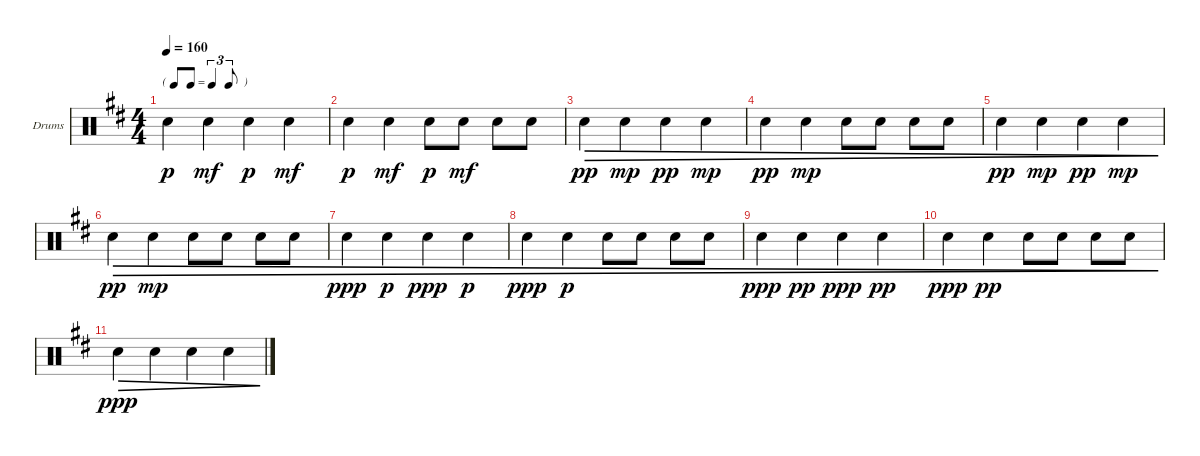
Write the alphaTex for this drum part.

\defaultSystemsLayout 4
\bracketExtendMode groupsimilarinstruments
\firstSystemTrackNameOrientation horizontal
\otherSystemsTrackNameOrientation horizontal
\track ("Hal Blaine" "Drums") {instrument percussion}
\staff {score}
\articulation defaults
\ts (4 4)
\tf triplet8th
\tempo 160
\clef neutral
\ks bminor "Snare (hit) 2".4{dy p} "Snare (hit) 2".4{dy mf} "Snare (hit) 2".4{dy p} "Snare (hit) 2".4{dy mf}
|
"Snare (hit) 2".4{dy p} "Snare (hit) 2".4{dy mf} "Snare (hit) 2".8{dy p} "Snare (hit) 2".8{dy mf} "Snare (hit) 2".8 "Snare (hit) 2".8 |
"Snare (hit) 2".4{dec dy pp} "Snare (hit) 2".4{dec dy mp} "Snare (hit) 2".4{dec dy pp} "Snare (hit) 2".4{dec dy mp} |
"Snare (hit) 2".4{dec dy pp} "Snare (hit) 2".4{dec dy mp} "Snare (hit) 2".8{dec} "Snare (hit) 2".8{dec} "Snare (hit) 2".8{dec} "Snare (hit) 2".8{dec} |
"Snare (hit) 2".4{dec dy pp} "Snare (hit) 2".4{dec dy mp} "Snare (hit) 2".4{dec dy pp} "Snare (hit) 2".4{dec dy mp} |
"Snare (hit) 2".4{dec dy pp} "Snare (hit) 2".4{dec dy mp} "Snare (hit) 2".8{dec} "Snare (hit) 2".8{dec} "Snare (hit) 2".8{dec} "Snare (hit) 2".8{dec} |
"Snare (hit) 2".4{dec dy ppp} "Snare (hit) 2".4{dec dy p} "Snare (hit) 2".4{dec dy ppp} "Snare (hit) 2".4{dec dy p} |
"Snare (hit) 2".4{dec dy ppp} "Snare (hit) 2".4{dec dy p} "Snare (hit) 2".8{dec} "Snare (hit) 2".8{dec} "Snare (hit) 2".8{dec} "Snare (hit) 2".8{dec} |
"Snare (hit) 2".4{dec dy ppp} "Snare (hit) 2".4{dec dy pp} "Snare (hit) 2".4{dec dy ppp} "Snare (hit) 2".4{dec dy pp} |
"Snare (hit) 2".4{dec dy ppp} "Snare (hit) 2".4{dec dy pp} "Snare (hit) 2".8{dec} "Snare (hit) 2".8{dec} "Snare (hit) 2".8{dec} "Snare (hit) 2".8{dec} |
"Snare (hit) 2".4{dec dy ppp} "Snare (hit) 2".4{dec} "Snare (hit) 2".4{dec} "Snare (hit) 2".4{dec}
